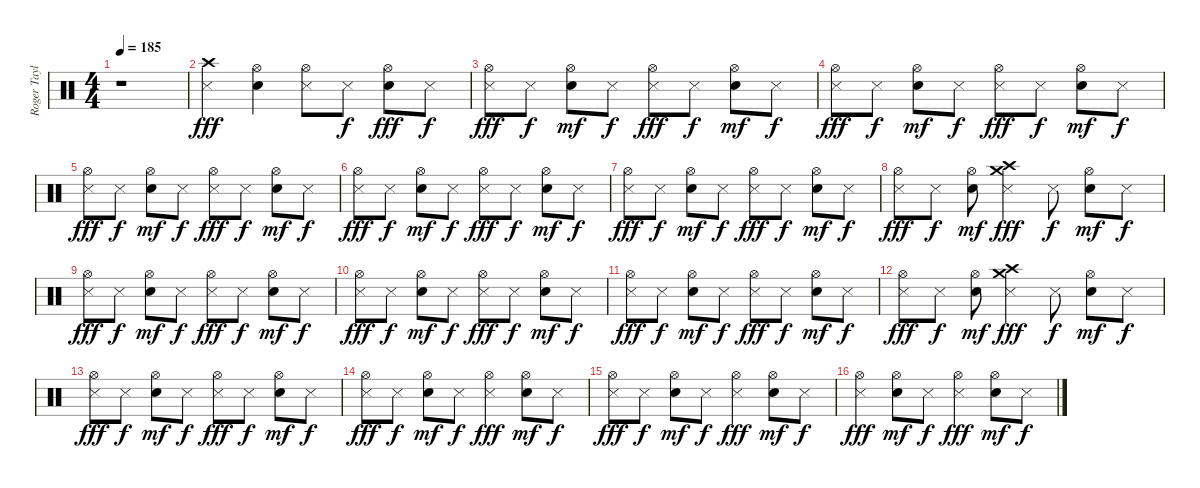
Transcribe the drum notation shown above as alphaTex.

\track ("Roger Taylor" "Roger Tayl") {instrument percussion}
\staff {score}
\articulation defaults
\ts (4 4)
\tempo 185
\clef neutral
\ks c
r.1{dy fff} |
("Crash high (hit)" "Metronome (hit)").4 ("Hi-Hat (open)" "Snare (hit) 2").4 ("Hi-Hat (open)" "Metronome (hit)").8 "Metronome (hit)".8{dy f} ("Hi-Hat (open)" "Snare (hit) 2").8{dy fff} "Metronome (hit)".8{dy f} |
("Metronome (hit)" "Hi-Hat (open)").8{dy fff} "Metronome (hit)".8{dy f} ("Snare (hit) 2" "Hi-Hat (open)").8{dy mf} "Metronome (hit)".8{dy f} ("Metronome (hit)" "Hi-Hat (open)").8{dy fff} "Metronome (hit)".8{dy f} ("Snare (hit) 2" "Hi-Hat (open)").8{dy mf} "Metronome (hit)".8{dy f} |
("Metronome (hit)" "Hi-Hat (open)").8{dy fff} "Metronome (hit)".8{dy f} ("Snare (hit) 2" "Hi-Hat (open)").8{dy mf} "Metronome (hit)".8{dy f} ("Metronome (hit)" "Hi-Hat (open)").8{dy fff} "Metronome (hit)".8{dy f} ("Snare (hit) 2" "Hi-Hat (open)").8{dy mf} "Metronome (hit)".8{dy f} |
("Metronome (hit)" "Hi-Hat (open)").8{dy fff} "Metronome (hit)".8{dy f} ("Snare (hit) 2" "Hi-Hat (open)").8{dy mf} "Metronome (hit)".8{dy f} ("Metronome (hit)" "Hi-Hat (open)").8{dy fff} "Metronome (hit)".8{dy f} ("Snare (hit) 2" "Hi-Hat (open)").8{dy mf} "Metronome (hit)".8{dy f} |
("Metronome (hit)" "Hi-Hat (open)").8{dy fff} "Metronome (hit)".8{dy f} ("Snare (hit) 2" "Hi-Hat (open)").8{dy mf} "Metronome (hit)".8{dy f} ("Metronome (hit)" "Hi-Hat (open)").8{dy fff} "Metronome (hit)".8{dy f} ("Snare (hit) 2" "Hi-Hat (open)").8{dy mf} "Metronome (hit)".8{dy f} |
("Metronome (hit)" "Hi-Hat (open)").8{dy fff} "Metronome (hit)".8{dy f} ("Snare (hit) 2" "Hi-Hat (open)").8{dy mf} "Metronome (hit)".8{dy f} ("Metronome (hit)" "Hi-Hat (open)").8{dy fff} "Metronome (hit)".8{dy f} ("Snare (hit) 2" "Hi-Hat (open)").8{dy mf} "Metronome (hit)".8{dy f} |
("Metronome (hit)" "Hi-Hat (open)").8{dy fff} "Metronome (hit)".8{dy f} ("Snare (hit) 2" "Hi-Hat (open)").8{dy mf} ("Crash medium (hit)" "Metronome (hit)" "Crash high (hit)").4{dy fff} "Metronome (hit)".8{dy f} ("Snare (hit) 2" "Hi-Hat (open)").8{dy mf} "Metronome (hit)".8{dy f} |
("Metronome (hit)" "Hi-Hat (open)").8{dy fff} "Metronome (hit)".8{dy f} ("Snare (hit) 2" "Hi-Hat (open)").8{dy mf} "Metronome (hit)".8{dy f} ("Metronome (hit)" "Hi-Hat (open)").8{dy fff} "Metronome (hit)".8{dy f} ("Snare (hit) 2" "Hi-Hat (open)").8{dy mf} "Metronome (hit)".8{dy f} |
("Metronome (hit)" "Hi-Hat (open)").8{dy fff} "Metronome (hit)".8{dy f} ("Snare (hit) 2" "Hi-Hat (open)").8{dy mf} "Metronome (hit)".8{dy f} ("Metronome (hit)" "Hi-Hat (open)").8{dy fff} "Metronome (hit)".8{dy f} ("Snare (hit) 2" "Hi-Hat (open)").8{dy mf} "Metronome (hit)".8{dy f} |
("Metronome (hit)" "Hi-Hat (open)").8{dy fff} "Metronome (hit)".8{dy f} ("Snare (hit) 2" "Hi-Hat (open)").8{dy mf} "Metronome (hit)".8{dy f} ("Metronome (hit)" "Hi-Hat (open)").8{dy fff} "Metronome (hit)".8{dy f} ("Snare (hit) 2" "Hi-Hat (open)").8{dy mf} "Metronome (hit)".8{dy f} |
("Metronome (hit)" "Hi-Hat (open)").8{dy fff} "Metronome (hit)".8{dy f} ("Snare (hit) 2" "Hi-Hat (open)").8{dy mf} ("Crash medium (hit)" "Metronome (hit)" "Crash high (hit)").4{dy fff} "Metronome (hit)".8{dy f} ("Snare (hit) 2" "Hi-Hat (open)").8{dy mf} "Metronome (hit)".8{dy f} |
("Metronome (hit)" "Hi-Hat (open)").8{dy fff} "Metronome (hit)".8{dy f} ("Snare (hit) 2" "Hi-Hat (open)").8{dy mf} "Metronome (hit)".8{dy f} ("Metronome (hit)" "Hi-Hat (open)").8{dy fff} "Metronome (hit)".8{dy f} ("Snare (hit) 2" "Hi-Hat (open)").8{dy mf} "Metronome (hit)".8{dy f} |
("Metronome (hit)" "Hi-Hat (open)").8{dy fff} "Metronome (hit)".8{dy f} ("Snare (hit) 2" "Hi-Hat (open)").8{dy mf} "Metronome (hit)".8{dy f} ("Metronome (hit)" "Hi-Hat (open)").4{dy fff} ("Snare (hit) 2" "Hi-Hat (open)").8{dy mf} "Metronome (hit)".8{dy f} |
("Metronome (hit)" "Hi-Hat (open)").8{dy fff} "Metronome (hit)".8{dy f} ("Snare (hit) 2" "Hi-Hat (open)").8{dy mf} "Metronome (hit)".8{dy f} ("Metronome (hit)" "Hi-Hat (open)").4{dy fff} ("Snare (hit) 2" "Hi-Hat (open)").8{dy mf} "Metronome (hit)".8{dy f} |
("Metronome (hit)" "Hi-Hat (open)").4{dy fff} ("Snare (hit) 2" "Hi-Hat (open)").8{dy mf} "Metronome (hit)".8{dy f} ("Metronome (hit)" "Hi-Hat (open)").4{dy fff} ("Snare (hit) 2" "Hi-Hat (open)").8{dy mf} "Metronome (hit)".8{dy f}
